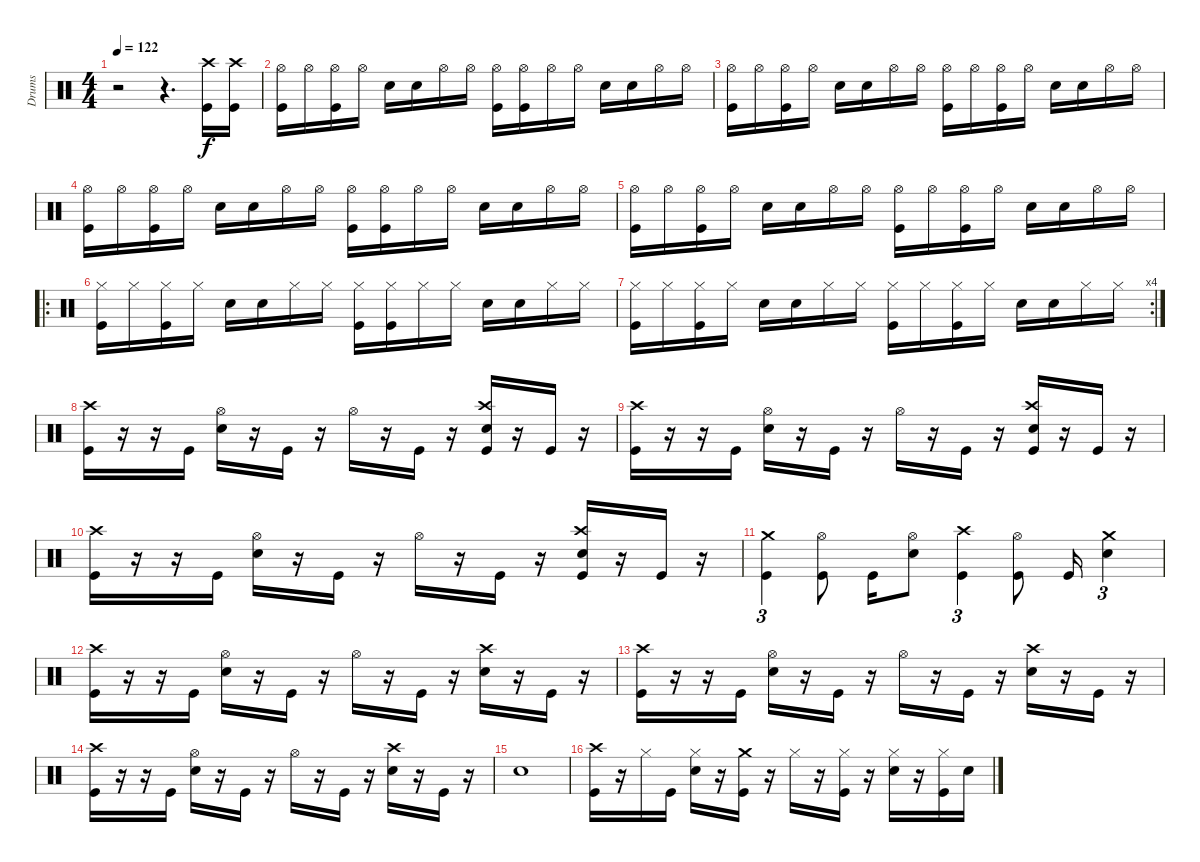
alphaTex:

\track ("Drums" "Drums") {instrument percussion}
\staff {score}
\articulation defaults
\ts (4 4)
\tempo 122
\clef neutral
\ks c
r.2{dy f} r.4{d} ("Kick (hit)" "Crash high (hit)").16 ("Kick (hit)" "Crash high (hit)").16 |
("Kick (hit)" "Hi-Hat (open)").16 "Hi-Hat (open)".16 ("Kick (hit)" "Hi-Hat (open)").16 "Hi-Hat (open)".16 "Snare (hit) 2".16 "Snare (hit) 2".16 "Hi-Hat (open)".16 "Hi-Hat (open)".16 ("Kick (hit)" "Hi-Hat (open)").16 ("Kick (hit)" "Hi-Hat (open)").16 "Hi-Hat (open)".16 "Hi-Hat (open)".16 "Snare (hit) 2".16 "Snare (hit) 2".16 "Hi-Hat (open)".16 "Hi-Hat (open)".16 |
("Kick (hit)" "Hi-Hat (open)").16 "Hi-Hat (open)".16 ("Kick (hit)" "Hi-Hat (open)").16 "Hi-Hat (open)".16 "Snare (hit) 2".16 "Snare (hit) 2".16 "Hi-Hat (open)".16 "Hi-Hat (open)".16 ("Kick (hit)" "Hi-Hat (open)").16 "Hi-Hat (open)".16 ("Kick (hit)" "Hi-Hat (open)").16 "Hi-Hat (open)".16 "Snare (hit) 2".16 "Snare (hit) 2".16 "Hi-Hat (open)".16 "Hi-Hat (open)".16 |
("Kick (hit)" "Hi-Hat (open)").16 "Hi-Hat (open)".16 ("Kick (hit)" "Hi-Hat (open)").16 "Hi-Hat (open)".16 "Snare (hit) 2".16 "Snare (hit) 2".16 "Hi-Hat (open)".16 "Hi-Hat (open)".16 ("Kick (hit)" "Hi-Hat (open)").16 ("Kick (hit)" "Hi-Hat (open)").16 "Hi-Hat (open)".16 "Hi-Hat (open)".16 "Snare (hit) 2".16 "Snare (hit) 2".16 "Hi-Hat (open)".16 "Hi-Hat (open)".16 |
("Kick (hit)" "Hi-Hat (open)").16 "Hi-Hat (open)".16 ("Kick (hit)" "Hi-Hat (open)").16 "Hi-Hat (open)".16 "Snare (hit) 2".16 "Snare (hit) 2".16 "Hi-Hat (open)".16 "Hi-Hat (open)".16 ("Kick (hit)" "Hi-Hat (open)").16 "Hi-Hat (open)".16 ("Kick (hit)" "Hi-Hat (open)").16 "Hi-Hat (open)".16 "Snare (hit) 2".16 "Snare (hit) 2".16 "Hi-Hat (open)".16 "Hi-Hat (open)".16 |
\ro
("Kick (hit)" "Hi-Hat (closed)").16 "Hi-Hat (closed)".16 ("Kick (hit)" "Hi-Hat (closed)").16 "Hi-Hat (closed)".16 "Snare (hit) 2".16 "Snare (hit) 2".16 "Hi-Hat (closed)".16 "Hi-Hat (closed)".16 ("Kick (hit)" "Hi-Hat (closed)").16 ("Kick (hit)" "Hi-Hat (closed)").16 "Hi-Hat (closed)".16 "Hi-Hat (closed)".16 "Snare (hit) 2".16 "Snare (hit) 2".16 "Hi-Hat (closed)".16 "Hi-Hat (closed)".16 |
\rc 4
("Kick (hit)" "Hi-Hat (closed)").16 "Hi-Hat (closed)".16 ("Kick (hit)" "Hi-Hat (closed)").16 "Hi-Hat (closed)".16 "Snare (hit) 2".16 "Snare (hit) 2".16 "Hi-Hat (closed)".16 "Hi-Hat (closed)".16 ("Kick (hit)" "Hi-Hat (closed)").16 "Hi-Hat (closed)".16 ("Kick (hit)" "Hi-Hat (closed)").16 "Hi-Hat (closed)".16 "Snare (hit) 2".16 "Snare (hit) 2".16 "Hi-Hat (closed)".16 "Hi-Hat (closed)".16 |
("Kick (hit)" "Crash high (hit)").16 r.16 r.16 "Kick (hit)".16 ("Snare (hit) 2" "Hi-Hat (open)").16 r.16 "Kick (hit)".16 r.16 "Hi-Hat (open)".16 r.16 "Kick (hit)".16 r.16 ("Snare (hit) 2" "Kick (hit)" "Crash high (hit)").16 r.16 "Kick (hit)".16 r.16 |
("Kick (hit)" "Crash high (hit)").16 r.16 r.16 "Kick (hit)".16 ("Snare (hit) 2" "Hi-Hat (open)").16 r.16 "Kick (hit)".16 r.16 "Hi-Hat (open)".16 r.16 "Kick (hit)".16 r.16 ("Snare (hit) 2" "Kick (hit)" "Crash high (hit)").16 r.16 "Kick (hit)".16 r.16 |
("Kick (hit)" "Crash high (hit)").16 r.16 r.16 "Kick (hit)".16 ("Snare (hit) 2" "Hi-Hat (open)").16 r.16 "Kick (hit)".16 r.16 "Hi-Hat (open)".16 r.16 "Kick (hit)".16 r.16 ("Snare (hit) 2" "Kick (hit)" "Crash high (hit)").16 r.16 "Kick (hit)".16 r.16 |
("Kick (hit)" "Crash medium (hit)").4{tu (3 2)} ("Kick (hit)" "Hi-Hat (open)").8 "Kick (hit)".16 ("Snare (hit) 2" "Hi-Hat (open)").8 ("Kick (hit)" "Crash high (hit)").4{tu (3 2)} ("Kick (hit)" "Hi-Hat (open)").8 "Kick (hit)".16 ("Snare (hit) 2" "Crash medium (hit)").4{tu (3 2)} |
("Kick (hit)" "Crash high (hit)").16 r.16 r.16 "Kick (hit)".16 ("Snare (hit) 2" "Hi-Hat (open)").16 r.16 "Kick (hit)".16 r.16 "Hi-Hat (open)".16 r.16 "Kick (hit)".16 r.16 ("Snare (hit) 2" "Crash high (hit)").16 r.16 "Kick (hit)".16 r.16 |
("Kick (hit)" "Crash high (hit)").16 r.16 r.16 "Kick (hit)".16 ("Snare (hit) 2" "Hi-Hat (open)").16 r.16 "Kick (hit)".16 r.16 "Hi-Hat (open)".16 r.16 "Kick (hit)".16 r.16 ("Snare (hit) 2" "Crash high (hit)").16 r.16 "Kick (hit)".16 r.16 |
("Kick (hit)" "Crash high (hit)").16 r.16 r.16 "Kick (hit)".16 ("Snare (hit) 2" "Hi-Hat (open)").16 r.16 "Kick (hit)".16 r.16 "Hi-Hat (open)".16 r.16 "Kick (hit)".16 r.16 ("Snare (hit) 2" "Crash high (hit)").16 r.16 "Kick (hit)".16 r.16 |
"Snare (hit) 2".1 |
("Kick (hit)" "Crash high (hit)").16 r.16 "Hi-Hat (closed)".16 "Kick (hit)".16 ("Snare (hit) 2" "Hi-Hat (closed)").16 r.16 ("Kick (hit)" "Crash medium (hit)").16 r.16 "Hi-Hat (closed)".16 r.16 ("Kick (hit)" "Hi-Hat (closed)").16 r.16 ("Snare (hit) 2" "Hi-Hat (closed)").16 r.16 ("Kick (hit)" "Hi-Hat (closed)").16 "Snare (hit) 2".16
